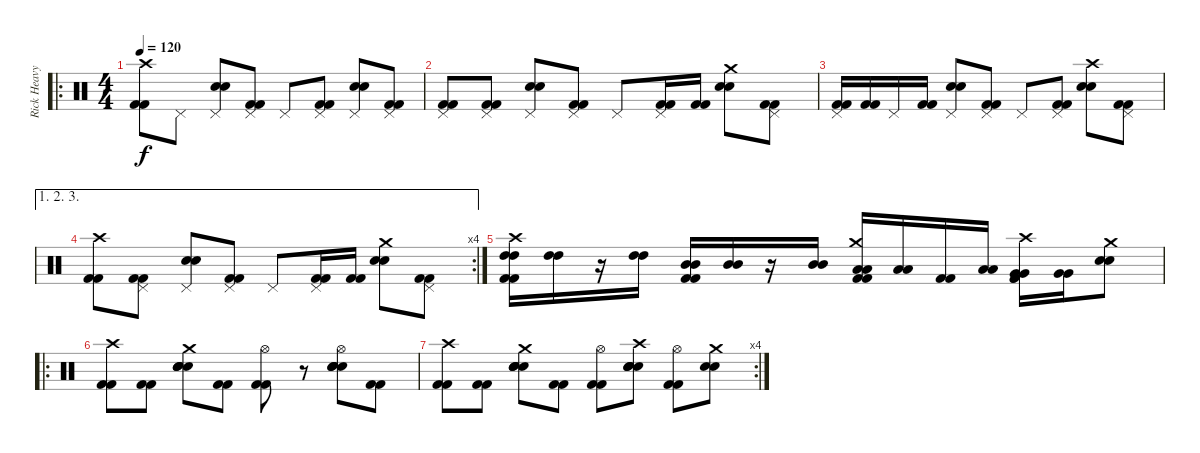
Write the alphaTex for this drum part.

\track ("Rick Heavy" "Rick Heavy") {instrument percussion}
\staff {score}
\articulation defaults
\ro
\ts (4 4)
\tempo 120
\clef neutral
\ks c
("Crash high (hit)" "Kick (hit) 2" "Kick (hit) 2").8{dy f} "Pedal Hi-Hat (hit)".8 ("Pedal Hi-Hat (hit)" "Electric Snare (hit)" "Snare (hit) 2").8 ("Pedal Hi-Hat (hit)" "Kick (hit) 2" "Kick (hit) 2").8 "Pedal Hi-Hat (hit)".8 ("Pedal Hi-Hat (hit)" "Kick (hit) 2" "Kick (hit) 2").8 ("Pedal Hi-Hat (hit)" "Electric Snare (hit)" "Snare (hit) 2").8 ("Pedal Hi-Hat (hit)" "Kick (hit) 2" "Kick (hit) 2").8 |
("Pedal Hi-Hat (hit)" "Kick (hit) 2" "Kick (hit) 2").8 ("Pedal Hi-Hat (hit)" "Kick (hit) 2" "Kick (hit) 2").8 ("Pedal Hi-Hat (hit)" "Electric Snare (hit)" "Snare (hit) 2").8 ("Pedal Hi-Hat (hit)" "Kick (hit) 2" "Kick (hit) 2").8 "Pedal Hi-Hat (hit)".8 ("Pedal Hi-Hat (hit)" "Kick (hit) 2" "Kick (hit) 2").16 ("Kick (hit) 2" "Kick (hit) 2").16 ("Crash medium (hit)" "Electric Snare (hit)" "Snare (hit) 2").8 ("Pedal Hi-Hat (hit)" "Kick (hit) 2" "Kick (hit) 2").8 |
("Pedal Hi-Hat (hit)" "Kick (hit) 2" "Kick (hit) 2").16 ("Kick (hit) 2" "Kick (hit) 2").16 "Pedal Hi-Hat (hit)".16 ("Kick (hit) 2" "Kick (hit) 2").16 ("Pedal Hi-Hat (hit)" "Electric Snare (hit)" "Snare (hit) 2").8 ("Pedal Hi-Hat (hit)" "Kick (hit) 2" "Kick (hit) 2").8 "Pedal Hi-Hat (hit)".8 ("Pedal Hi-Hat (hit)" "Kick (hit) 2" "Kick (hit) 2").8 ("Crash high (hit)" "Electric Snare (hit)" "Snare (hit) 2").8 ("Pedal Hi-Hat (hit)" "Kick (hit) 2" "Kick (hit) 2").8 |
\ae (1 2 3)
\rc 4
("Crash high (hit)" "Kick (hit) 2" "Kick (hit) 2").8 ("Pedal Hi-Hat (hit)" "Kick (hit) 2" "Kick (hit) 2").8 ("Pedal Hi-Hat (hit)" "Electric Snare (hit)" "Snare (hit) 2").8 ("Pedal Hi-Hat (hit)" "Kick (hit) 2" "Kick (hit) 2").8 "Pedal Hi-Hat (hit)".8 ("Pedal Hi-Hat (hit)" "Kick (hit) 2" "Kick (hit) 2").16 ("Kick (hit) 2" "Kick (hit) 2").16 ("Crash medium (hit)" "Electric Snare (hit)" "Snare (hit) 2").8 ("Pedal Hi-Hat (hit)" "Kick (hit) 2" "Kick (hit) 2").8 |
("Crash high (hit)" "High Tom (hit)" "High Tom (hit)" "Kick (hit) 2" "Kick (hit) 2").16 ("High Tom (hit)" "High Tom (hit)").16 r.16 ("High Tom (hit)" "High Tom (hit)").16 ("Mid Tom (hit)" "Mid Tom (hit)" "Kick (hit) 2" "Kick (hit) 2").16 ("Mid Tom (hit)" "Mid Tom (hit)").16 r.16 ("Mid Tom (hit)" "Mid Tom (hit)").16 ("Crash medium (hit)" "Low Tom (hit)" "Low Tom (hit)" "Kick (hit) 2" "Kick (hit) 2").16 ("Low Tom (hit)" "Low Tom (hit)").16 ("Kick (hit) 2" "Kick (hit) 2").16 ("Low Tom (hit)" "Low Tom (hit)").16 ("Crash high (hit)" "Very Low Tom (hit)" "Very Low Tom (hit)" "Kick (hit) 2" "Kick (hit) 2").16 ("Very Low Tom (hit)" "Very Low Tom (hit)").16 ("Crash medium (hit)" "Electric Snare (hit)" "Snare (hit) 2").8 |
\ro
("Crash high (hit)" "Kick (hit) 2" "Kick (hit) 2").8 ("Kick (hit) 2" "Kick (hit) 2").8 ("Crash medium (hit)" "Electric Snare (hit)" "Snare (hit) 2" "Snare (hit) 2" "Electric Snare (hit)").8 ("Kick (hit) 2" "Kick (hit) 2").8 ("Hi-Hat (open)" "Kick (hit) 2" "Kick (hit) 2").8 r.8 ("Hi-Hat (open)" "Electric Snare (hit)" "Snare (hit) 2" "Electric Snare (hit)" "Snare (hit) 2").8 ("Kick (hit) 2" "Kick (hit) 2").8 |
\rc 4
("Crash high (hit)" "Kick (hit) 2" "Kick (hit) 2").8 ("Kick (hit) 2" "Kick (hit) 2").8 ("Crash medium (hit)" "Electric Snare (hit)" "Snare (hit) 2" "Snare (hit) 2" "Electric Snare (hit)").8 ("Kick (hit) 2" "Kick (hit) 2").8 ("Hi-Hat (open)" "Kick (hit) 2" "Kick (hit) 2").8 ("Crash high (hit)" "Electric Snare (hit)" "Electric Snare (hit)" "Snare (hit) 2" "Snare (hit) 2").8 ("Hi-Hat (open)" "Kick (hit) 2" "Kick (hit) 2").8 ("Crash medium (hit)" "Electric Snare (hit)" "Snare (hit) 2").8
